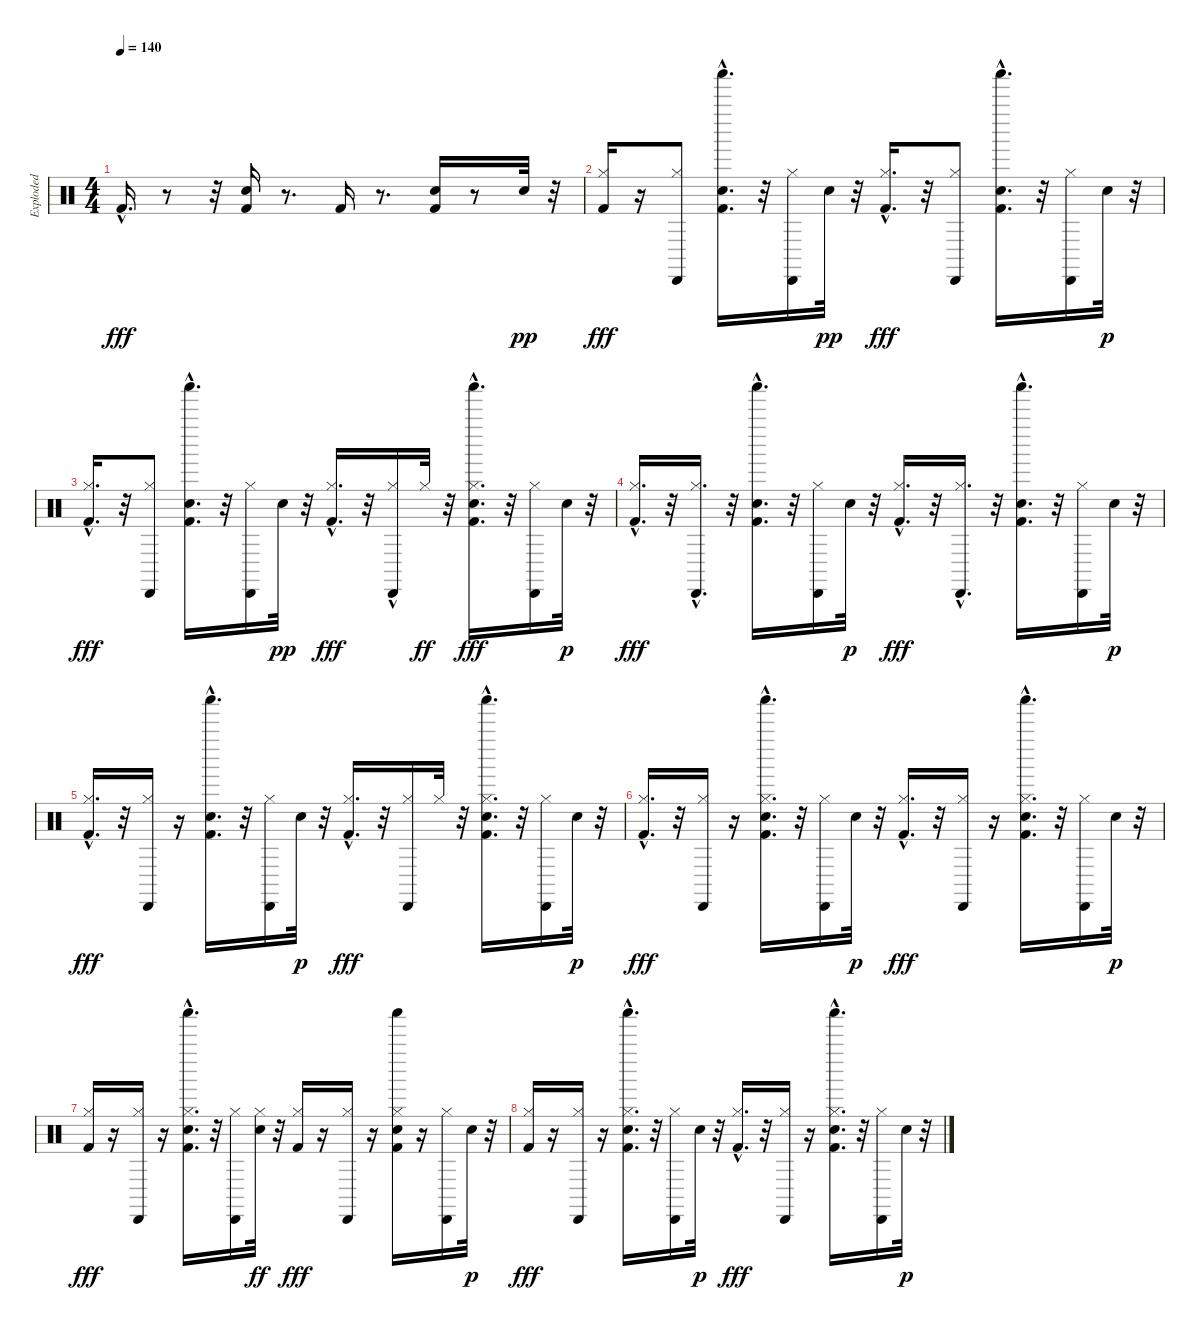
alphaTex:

\track ("Exploded" "Exploded") {instrument percussion}
\staff {score}
\articulation defaults
\ts (4 4)
\tempo 140
\clef neutral
\ks c "Kick (hit) 2"{hac}.16{d dy fff}
r.8 r.32 ("Hand Clap (hit)" "Kick (hit) 2").16 r.8{d} "Kick (hit) 2".16 r.8{d} ("Hand Clap (hit)" "Kick (hit) 2").16 r.8 "Snare (hit) 2".32{dy pp} r.32 |
("Hi-Hat (closed)" "Kick (hit) 2").16{dy fff} r.16 ("Hi-Hat (closed)" "Cabasa (hit)").8 ("Shaker (hit)" "Hand Clap (hit)" "Kick (hit) 2"{hac}).16{d} r.32 ("Hi-Hat (closed)" "Cabasa (hit)").16 "Snare (hit) 2".32{dy pp} r.32 ("Hi-Hat (closed)" "Kick (hit) 2"{hac}).16{d dy fff} r.32 ("Hi-Hat (closed)" "Cabasa (hit)").8 ("Shaker (hit)" "Hand Clap (hit)" "Kick (hit) 2"{hac}).16{d} r.32 ("Hi-Hat (closed)" "Cabasa (hit)").16 "Snare (hit) 2".32{dy p} r.32 |
("Hi-Hat (closed)" "Kick (hit) 2"{hac}).16{d dy fff} r.32 ("Hi-Hat (closed)" "Cabasa (hit)").8 ("Shaker (hit)"{hac} "Hand Clap (hit)" "Kick (hit) 2"{hac}).16{d} r.32 ("Hi-Hat (closed)" "Cabasa (hit)").16 "Snare (hit) 2".32{dy pp} r.32 ("Hi-Hat (closed)" "Kick (hit) 2"{hac}).16{d dy fff} r.32 ("Hi-Hat (closed)" "Cabasa (hit)"{hac}).16 "Hi-Hat (closed)".32{dy ff} r.32 ("Hi-Hat (closed)" "Shaker (hit)"{hac} "Hand Clap (hit)" "Kick (hit) 2"{hac}).16{d dy fff} r.32 ("Hi-Hat (closed)" "Cabasa (hit)").16 "Snare (hit) 2".32{dy p} r.32 |
("Hi-Hat (closed)" "Kick (hit) 2"{hac}).16{d dy fff} r.32 ("Hi-Hat (closed)" "Cabasa (hit)"{hac}).16{d} r.32 ("Shaker (hit)"{hac} "Hand Clap (hit)" "Kick (hit) 2"{hac}).16{d} r.32 ("Hi-Hat (closed)" "Cabasa (hit)").16 "Snare (hit) 2".32{dy p} r.32 ("Hi-Hat (closed)" "Kick (hit) 2"{hac}).16{d dy fff} r.32 ("Hi-Hat (closed)" "Cabasa (hit)"{hac}).16{d} r.32 ("Shaker (hit)"{hac} "Hand Clap (hit)" "Kick (hit) 2"{hac}).16{d} r.32 ("Hi-Hat (closed)" "Cabasa (hit)").16 "Snare (hit) 2".32{dy p} r.32 |
("Hi-Hat (closed)" "Kick (hit) 2"{hac}).16{d dy fff} r.32 ("Hi-Hat (closed)" "Cabasa (hit)").16 r.16 ("Shaker (hit)"{hac} "Hand Clap (hit)" "Kick (hit) 2"{hac}).16{d} r.32 ("Hi-Hat (closed)" "Cabasa (hit)").16 "Snare (hit) 2".32{dy p} r.32 ("Hi-Hat (closed)" "Kick (hit) 2"{hac}).16{d dy fff} r.32 ("Hi-Hat (closed)" "Cabasa (hit)").16 "Hi-Hat (closed)".32 r.32 ("Hi-Hat (closed)" "Shaker (hit)"{hac} "Hand Clap (hit)" "Kick (hit) 2"{hac}).16{d} r.32 ("Hi-Hat (closed)" "Cabasa (hit)").16 "Snare (hit) 2".32{dy p} r.32 |
("Hi-Hat (closed)" "Kick (hit) 2"{hac}).16{d dy fff} r.32 ("Hi-Hat (closed)" "Cabasa (hit)").16 r.16 ("Hi-Hat (closed)" "Shaker (hit)"{hac} "Hand Clap (hit)" "Kick (hit) 2"{hac}).16{d} r.32 ("Hi-Hat (closed)" "Cabasa (hit)").16 "Snare (hit) 2".32{dy p} r.32 ("Hi-Hat (closed)" "Kick (hit) 2"{hac}).16{d dy fff} r.32 ("Hi-Hat (closed)" "Cabasa (hit)").16 r.16 ("Hi-Hat (closed)" "Shaker (hit)" "Hand Clap (hit)" "Kick (hit) 2"{hac}).16{d} r.32 ("Hi-Hat (closed)" "Cabasa (hit)").16 "Snare (hit) 2".32{dy p} r.32 |
("Hi-Hat (closed)" "Kick (hit) 2").16{dy fff} r.16 ("Hi-Hat (closed)" "Cabasa (hit)").16 r.16 ("Hi-Hat (closed)" "Shaker (hit)"{hac} "Hand Clap (hit)" "Kick (hit) 2").16{d} r.32 ("Hi-Hat (closed)" "Cabasa (hit)").16 ("Snare (hit) 2" "Hi-Hat (closed)").32{dy ff} r.32 ("Hi-Hat (closed)" "Kick (hit) 2").16{dy fff} r.16 ("Hi-Hat (closed)" "Cabasa (hit)").16 r.16 ("Hi-Hat (closed)" "Shaker (hit)" "Hand Clap (hit)" "Kick (hit) 2").16 r.16 ("Hi-Hat (closed)" "Cabasa (hit)").16 "Snare (hit) 2".32{dy p} r.32 |
("Hi-Hat (closed)" "Kick (hit) 2").16{dy fff} r.16 ("Hi-Hat (closed)" "Cabasa (hit)").16 r.16 ("Hi-Hat (closed)" "Shaker (hit)"{hac} "Hand Clap (hit)" "Kick (hit) 2"{hac}).16{d} r.32 ("Hi-Hat (closed)" "Cabasa (hit)").16 "Snare (hit) 2".32{dy p} r.32 ("Hi-Hat (closed)" "Kick (hit) 2"{hac}).16{d dy fff} r.32 ("Hi-Hat (closed)" "Cabasa (hit)").16 r.16 ("Hi-Hat (closed)" "Shaker (hit)"{hac} "Hand Clap (hit)"{hac} "Kick (hit) 2"{hac}).16{d} r.32 ("Hi-Hat (closed)" "Cabasa (hit)").16 "Snare (hit) 2".32{dy p} r.32
